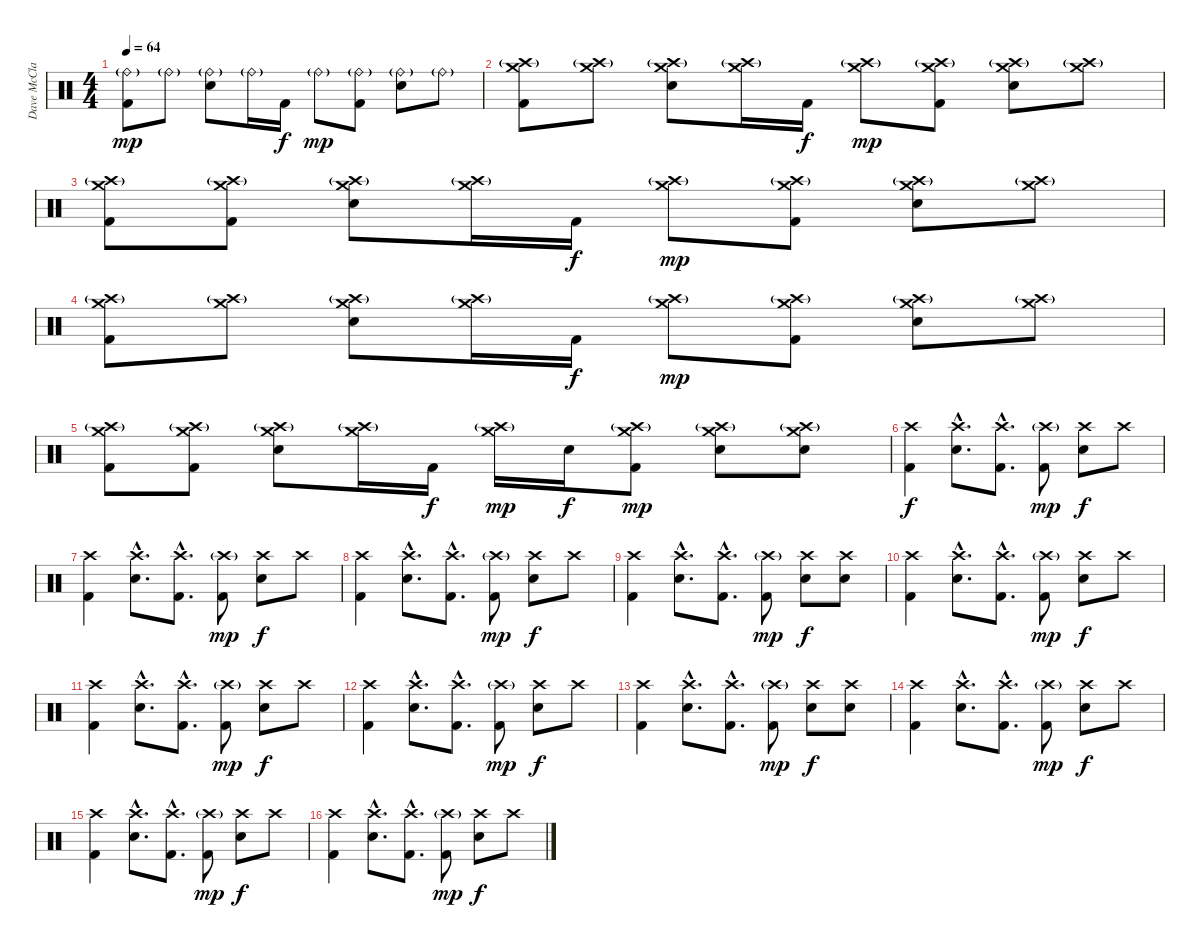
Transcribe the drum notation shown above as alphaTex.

\track ("Dave McClain" "Dave McCla") {instrument percussion}
\staff {score}
\articulation defaults
\ts (4 4)
\tempo 64
\clef neutral
\ks c
("Ride (bell)"{g} "Kick (hit) 2").8{dy mp} "Ride (bell)"{g}.8 ("Ride (bell)"{g} "Electric Snare (hit)").8 "Ride (bell)"{g}.16 "Kick (hit) 2".16{dy f} "Ride (bell)"{g}.8{dy mp} ("Ride (bell)"{g} "Kick (hit) 2").8 ("Ride (bell)"{g} "Electric Snare (hit)").8 "Ride (bell)"{g}.8 |
("Crash high (hit)"{g} "Crash medium (hit)" "Kick (hit) 2").8 ("Crash high (hit)"{g} "Crash medium (hit)").8 ("Crash high (hit)"{g} "Crash medium (hit)" "Electric Snare (hit)").8 ("Crash high (hit)"{g} "Crash medium (hit)").16 "Kick (hit) 2".16{dy f} ("Crash high (hit)"{g} "Crash medium (hit)").8{dy mp} ("Crash high (hit)"{g} "Crash medium (hit)" "Kick (hit) 2").8 ("Crash high (hit)"{g} "Crash medium (hit)" "Electric Snare (hit)").8 ("Crash high (hit)"{g} "Crash medium (hit)").8 |
("Crash high (hit)"{g} "Crash medium (hit)" "Kick (hit) 2").8 ("Crash high (hit)"{g} "Crash medium (hit)" "Kick (hit) 2").8 ("Crash high (hit)"{g} "Crash medium (hit)" "Electric Snare (hit)").8 ("Crash high (hit)"{g} "Crash medium (hit)").16 "Kick (hit) 2".16{dy f} ("Crash high (hit)"{g} "Crash medium (hit)").8{dy mp} ("Crash high (hit)"{g} "Crash medium (hit)" "Kick (hit) 2").8 ("Crash high (hit)"{g} "Crash medium (hit)" "Electric Snare (hit)").8 ("Crash high (hit)"{g} "Crash medium (hit)").8 |
("Crash high (hit)"{g} "Crash medium (hit)" "Kick (hit) 2").8 ("Crash high (hit)"{g} "Crash medium (hit)").8 ("Crash high (hit)"{g} "Crash medium (hit)" "Electric Snare (hit)").8 ("Crash high (hit)"{g} "Crash medium (hit)").16 "Kick (hit) 2".16{dy f} ("Crash high (hit)"{g} "Crash medium (hit)").8{dy mp} ("Crash high (hit)"{g} "Crash medium (hit)" "Kick (hit) 2").8 ("Crash high (hit)"{g} "Crash medium (hit)" "Electric Snare (hit)").8 ("Crash high (hit)"{g} "Crash medium (hit)").8 |
("Crash high (hit)"{g} "Crash medium (hit)" "Kick (hit) 2").8 ("Crash high (hit)"{g} "Crash medium (hit)" "Kick (hit) 2").8 ("Crash high (hit)"{g} "Crash medium (hit)" "Electric Snare (hit)").8 ("Crash high (hit)"{g} "Crash medium (hit)").16 "Kick (hit) 2".16{dy f} ("Crash high (hit)"{g} "Crash medium (hit)").16{dy mp} "Electric Snare (hit)".16{dy f} ("Crash high (hit)"{g} "Crash medium (hit)" "Kick (hit) 2").8{dy mp} ("Crash high (hit)"{g} "Crash medium (hit)" "Electric Snare (hit)").8 ("Crash high (hit)"{g} "Crash medium (hit)" "Electric Snare (hit)").8 |
("Crash high (hit)" "Kick (hit) 2").4{dy f} ("Crash high (hit)"{hac} "Electric Snare (hit)"{hac}).8{d} ("Crash high (hit)"{hac} "Kick (hit) 2"{hac}).8{d} ("Crash high (hit)"{g} "Kick (hit) 2").8{dy mp} ("Crash high (hit)" "Electric Snare (hit)").8{dy f} "Crash high (hit)".8 |
("Crash high (hit)" "Kick (hit) 2").4 ("Crash high (hit)"{hac} "Electric Snare (hit)"{hac}).8{d} ("Crash high (hit)"{hac} "Kick (hit) 2"{hac}).8{d} ("Crash high (hit)"{g} "Kick (hit) 2").8{dy mp} ("Crash high (hit)" "Electric Snare (hit)").8{dy f} "Crash high (hit)".8 |
("Crash high (hit)" "Kick (hit) 2").4 ("Crash high (hit)"{hac} "Electric Snare (hit)"{hac}).8{d} ("Crash high (hit)"{hac} "Kick (hit) 2"{hac}).8{d} ("Crash high (hit)"{g} "Kick (hit) 2").8{dy mp} ("Crash high (hit)" "Electric Snare (hit)").8{dy f} "Crash high (hit)".8 |
("Crash high (hit)" "Kick (hit) 2").4 ("Crash high (hit)"{hac} "Electric Snare (hit)"{hac}).8{d} ("Crash high (hit)"{hac} "Kick (hit) 2"{hac}).8{d} ("Crash high (hit)"{g} "Kick (hit) 2").8{dy mp} ("Crash high (hit)" "Electric Snare (hit)").8{dy f} ("Crash high (hit)" "Electric Snare (hit)").8 |
("Crash high (hit)" "Kick (hit) 2").4 ("Crash high (hit)"{hac} "Electric Snare (hit)"{hac}).8{d} ("Crash high (hit)"{hac} "Kick (hit) 2"{hac}).8{d} ("Crash high (hit)"{g} "Kick (hit) 2").8{dy mp} ("Crash high (hit)" "Electric Snare (hit)").8{dy f} "Crash high (hit)".8 |
("Crash high (hit)" "Kick (hit) 2").4 ("Crash high (hit)"{hac} "Electric Snare (hit)"{hac}).8{d} ("Crash high (hit)"{hac} "Kick (hit) 2"{hac}).8{d} ("Crash high (hit)"{g} "Kick (hit) 2").8{dy mp} ("Crash high (hit)" "Electric Snare (hit)").8{dy f} "Crash high (hit)".8 |
("Crash high (hit)" "Kick (hit) 2").4 ("Crash high (hit)"{hac} "Electric Snare (hit)"{hac}).8{d} ("Crash high (hit)"{hac} "Kick (hit) 2"{hac}).8{d} ("Crash high (hit)"{g} "Kick (hit) 2").8{dy mp} ("Crash high (hit)" "Electric Snare (hit)").8{dy f} "Crash high (hit)".8 |
("Crash high (hit)" "Kick (hit) 2").4 ("Crash high (hit)"{hac} "Electric Snare (hit)"{hac}).8{d} ("Crash high (hit)"{hac} "Kick (hit) 2"{hac}).8{d} ("Crash high (hit)"{g} "Kick (hit) 2").8{dy mp} ("Crash high (hit)" "Electric Snare (hit)").8{dy f} ("Crash high (hit)" "Electric Snare (hit)").8 |
("Crash high (hit)" "Kick (hit) 2").4 ("Crash high (hit)"{hac} "Electric Snare (hit)"{hac}).8{d} ("Crash high (hit)"{hac} "Kick (hit) 2"{hac}).8{d} ("Crash high (hit)"{g} "Kick (hit) 2").8{dy mp} ("Crash high (hit)" "Electric Snare (hit)").8{dy f} "Crash high (hit)".8 |
("Crash high (hit)" "Kick (hit) 2").4 ("Crash high (hit)"{hac} "Electric Snare (hit)"{hac}).8{d} ("Crash high (hit)"{hac} "Kick (hit) 2"{hac}).8{d} ("Crash high (hit)"{g} "Kick (hit) 2").8{dy mp} ("Crash high (hit)" "Electric Snare (hit)").8{dy f} "Crash high (hit)".8 |
("Crash high (hit)" "Kick (hit) 2").4 ("Crash high (hit)"{hac} "Electric Snare (hit)"{hac}).8{d} ("Crash high (hit)"{hac} "Kick (hit) 2"{hac}).8{d} ("Crash high (hit)"{g} "Kick (hit) 2").8{dy mp} ("Crash high (hit)" "Electric Snare (hit)").8{dy f} "Crash high (hit)".8
